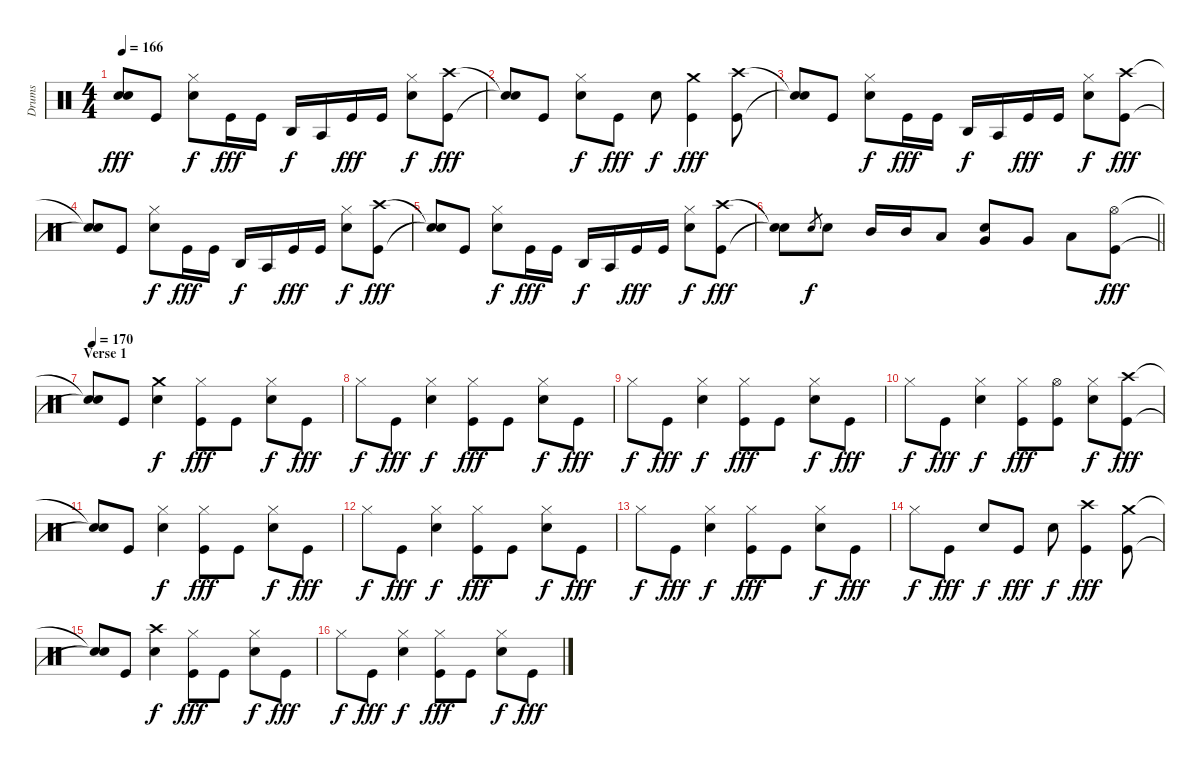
\track ("Drums" "Drums") {instrument percussion}
\staff {score}
\articulation defaults
\ts (4 4)
\tempo 166
\clef neutral
\ks c
("Snare (hit)"{t} "Snare (hit)"{t}).8{dy fff} "Kick (hit)".8 ("Hi-Hat (closed)" "Electric Snare (hit)").8{dy f} "Kick (hit)".16{dy fff} "Kick (hit)".16 "Agogo high (hit)".16{dy f} "Agogo tow (hit)".16 "Kick (hit)".16{dy fff} "Kick (hit)".16 ("Hi-Hat (closed)" "Electric Snare (hit)").8{dy f} ("Crash high (hit)" "Kick (hit)").8{dy fff} |
("Snare (hit)"{t} "Snare (hit)"{t}).8 "Kick (hit)".8 ("Hi-Hat (closed)" "Electric Snare (hit)").8{dy f} "Kick (hit)".8{dy fff} "Electric Snare (hit)".8{dy f} ("Crash medium (hit)" "Kick (hit)").4{dy fff} ("Crash high (hit)" "Kick (hit)").8 |
("Snare (hit)"{t} "Snare (hit)"{t}).8 "Kick (hit)".8 ("Hi-Hat (closed)" "Electric Snare (hit)").8{dy f} "Kick (hit)".16{dy fff} "Kick (hit)".16 "Agogo high (hit)".16{dy f} "Agogo tow (hit)".16 "Kick (hit)".16{dy fff} "Kick (hit)".16 ("Hi-Hat (closed)" "Electric Snare (hit)").8{dy f} ("Crash high (hit)" "Kick (hit)").8{dy fff} |
("Snare (hit)"{t} "Snare (hit)"{t}).8 "Kick (hit)".8 ("Hi-Hat (closed)" "Electric Snare (hit)").8{dy f} "Kick (hit)".16{dy fff} "Kick (hit)".16 "Agogo high (hit)".16{dy f} "Agogo tow (hit)".16 "Kick (hit)".16{dy fff} "Kick (hit)".16 ("Hi-Hat (closed)" "Electric Snare (hit)").8{dy f} ("Crash high (hit)" "Kick (hit)").8{dy fff} |
("Snare (hit)"{t} "Snare (hit)"{t}).8 "Kick (hit)".8 ("Hi-Hat (closed)" "Electric Snare (hit)").8{dy f} "Kick (hit)".16{dy fff} "Kick (hit)".16 "Agogo high (hit)".16{dy f} "Agogo tow (hit)".16 "Kick (hit)".16{dy fff} "Kick (hit)".16 ("Hi-Hat (closed)" "Electric Snare (hit)").8{dy f} ("Crash high (hit)" "Kick (hit)").8{dy fff} |
\barLineRight lightlight
("Snare (hit)"{t} "Snare (hit)"{t}).8 "Electric Snare (hit)".8{gr dy f} "Electric Snare (hit)".8 "Mid Tom (hit)".16 "Mid Tom (hit)".16 "Low Tom (hit)".8 ("Electric Snare (hit)" "Very Low Tom (hit)").8 "Very Low Tom (hit)".8 "Low Floor Tom (hit)".8 ("Hi-Hat (open)" "Kick (hit)").8{dy fff} |
\section ("" "Verse 1")
\tempo 170
("Snare (hit)"{t} "Snare (hit)"{t}).8{volume 0} "Kick (hit)".8{volume 15} ("Crash medium (hit)" "Electric Snare (hit)").4{dy f} ("Hi-Hat (closed)" "Kick (hit)").8{dy fff} "Kick (hit)".8 ("Hi-Hat (closed)" "Electric Snare (hit)").8{dy f} "Kick (hit)".8{dy fff} |
"Hi-Hat (closed)".8{dy f} "Kick (hit)".8{dy fff} ("Hi-Hat (closed)" "Electric Snare (hit)").4{dy f} ("Hi-Hat (closed)" "Kick (hit)").8{dy fff} "Kick (hit)".8 ("Hi-Hat (closed)" "Electric Snare (hit)").8{dy f} "Kick (hit)".8{dy fff} |
"Hi-Hat (closed)".8{dy f} "Kick (hit)".8{dy fff} ("Hi-Hat (closed)" "Electric Snare (hit)").4{dy f} ("Hi-Hat (closed)" "Kick (hit)").8{dy fff} "Kick (hit)".8 ("Hi-Hat (closed)" "Electric Snare (hit)").8{dy f} "Kick (hit)".8{dy fff} |
"Hi-Hat (closed)".8{dy f} "Kick (hit)".8{dy fff} ("Hi-Hat (closed)" "Electric Snare (hit)").4{dy f} ("Hi-Hat (closed)" "Kick (hit)").8{dy fff} ("Hi-Hat (open)" "Kick (hit)").8 ("Hi-Hat (closed)" "Electric Snare (hit)").8{dy f} ("Crash high (hit)" "Kick (hit)").8{dy fff} |
("Snare (hit)"{t} "Snare (hit)"{t}).8 "Kick (hit)".8 ("Hi-Hat (closed)" "Electric Snare (hit)").4{dy f} ("Hi-Hat (closed)" "Kick (hit)").8{dy fff} "Kick (hit)".8 ("Hi-Hat (closed)" "Electric Snare (hit)").8{dy f} "Kick (hit)".8{dy fff} |
"Hi-Hat (closed)".8{dy f} "Kick (hit)".8{dy fff} ("Hi-Hat (closed)" "Electric Snare (hit)").4{dy f} ("Hi-Hat (closed)" "Kick (hit)").8{dy fff} "Kick (hit)".8 ("Hi-Hat (closed)" "Electric Snare (hit)").8{dy f} "Kick (hit)".8{dy fff} |
"Hi-Hat (closed)".8{dy f} "Kick (hit)".8{dy fff} ("Hi-Hat (closed)" "Electric Snare (hit)").4{dy f} ("Hi-Hat (closed)" "Kick (hit)").8{dy fff} "Kick (hit)".8 ("Hi-Hat (closed)" "Electric Snare (hit)").8{dy f} "Kick (hit)".8{dy fff} |
"Hi-Hat (closed)".8{dy f} "Kick (hit)".8{dy fff} "Electric Snare (hit)".8{dy f} "Kick (hit)".8{dy fff} "Electric Snare (hit)".8{dy f} ("Crash high (hit)" "Kick (hit)").4{dy fff} ("Crash medium (hit)" "Kick (hit)").8 |
("Snare (hit)"{t} "Snare (hit)"{t}).8 "Kick (hit)".8 ("Crash high (hit)" "Electric Snare (hit)").4{dy f} ("Hi-Hat (closed)" "Kick (hit)").8{dy fff} "Kick (hit)".8 ("Hi-Hat (closed)" "Electric Snare (hit)").8{dy f} "Kick (hit)".8{dy fff} |
"Hi-Hat (closed)".8{dy f} "Kick (hit)".8{dy fff} ("Hi-Hat (closed)" "Electric Snare (hit)").4{dy f} ("Hi-Hat (closed)" "Kick (hit)").8{dy fff} "Kick (hit)".8 ("Hi-Hat (closed)" "Electric Snare (hit)").8{dy f} "Kick (hit)".8{dy fff}
